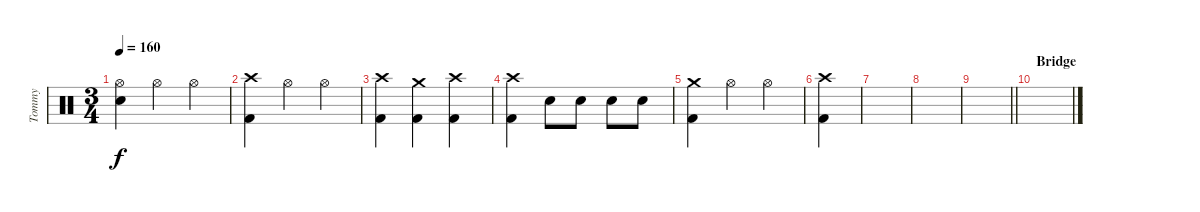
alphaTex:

\track ("Tommy" "Tommy") {instrument percussion}
\staff {score}
\articulation defaults
\ts (3 4)
\tempo 160
\clef neutral
\ks c
("Hi-Hat (open)" "Electric Snare (hit)").4{dy f} "Hi-Hat (open)".4 "Hi-Hat (open)".4 |
("Crash high (hit)" "Kick (hit) 2").4 "Hi-Hat (open)".4 "Hi-Hat (open)".4 |
("Crash high (hit)" "Kick (hit) 2").4 ("Crash medium (hit)" "Kick (hit) 2").4 ("Crash high (hit)" "Kick (hit) 2").4 |
("Crash high (hit)" "Kick (hit) 2").4 "Electric Snare (hit)".8 "Electric Snare (hit)".8 "Electric Snare (hit)".8 "Electric Snare (hit)".8 |
("Crash medium (hit)" "Kick (hit) 2").4 "Hi-Hat (open)".4 "Hi-Hat (open)".4 |
("Crash high (hit)" "Kick (hit) 2").4 |
|
|
\barLineRight lightlight
|
\section ("" "Bridge")
